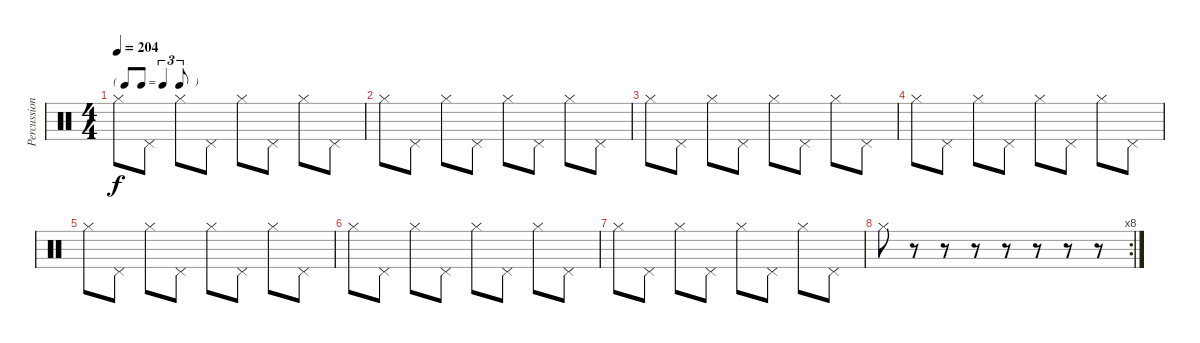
\track ("Percussion" "Percussion") {instrument percussion}
\staff {score}
\articulation defaults
\ts (4 4)
\tf triplet8th
\tempo 204
\clef neutral
\ks c "Hi-Hat (closed)".8{dy f} "Pedal Hi-Hat (hit)".8 "Hi-Hat (closed)".8 "Pedal Hi-Hat (hit)".8 "Hi-Hat (closed)".8 "Pedal Hi-Hat (hit)".8 "Hi-Hat (closed)".8 "Pedal Hi-Hat (hit)".8
|
"Hi-Hat (closed)".8 "Pedal Hi-Hat (hit)".8 "Hi-Hat (closed)".8 "Pedal Hi-Hat (hit)".8 "Hi-Hat (closed)".8 "Pedal Hi-Hat (hit)".8 "Hi-Hat (closed)".8 "Pedal Hi-Hat (hit)".8 |
"Hi-Hat (closed)".8 "Pedal Hi-Hat (hit)".8 "Hi-Hat (closed)".8 "Pedal Hi-Hat (hit)".8 "Hi-Hat (closed)".8 "Pedal Hi-Hat (hit)".8 "Hi-Hat (closed)".8 "Pedal Hi-Hat (hit)".8 |
"Hi-Hat (closed)".8 "Pedal Hi-Hat (hit)".8 "Hi-Hat (closed)".8 "Pedal Hi-Hat (hit)".8 "Hi-Hat (closed)".8 "Pedal Hi-Hat (hit)".8 "Hi-Hat (closed)".8 "Pedal Hi-Hat (hit)".8 |
"Hi-Hat (closed)".8 "Pedal Hi-Hat (hit)".8 "Hi-Hat (closed)".8 "Pedal Hi-Hat (hit)".8 "Hi-Hat (closed)".8 "Pedal Hi-Hat (hit)".8 "Hi-Hat (closed)".8 "Pedal Hi-Hat (hit)".8 |
"Hi-Hat (closed)".8 "Pedal Hi-Hat (hit)".8 "Hi-Hat (closed)".8 "Pedal Hi-Hat (hit)".8 "Hi-Hat (closed)".8 "Pedal Hi-Hat (hit)".8 "Hi-Hat (closed)".8 "Pedal Hi-Hat (hit)".8 |
"Hi-Hat (closed)".8 "Pedal Hi-Hat (hit)".8 "Hi-Hat (closed)".8 "Pedal Hi-Hat (hit)".8 "Hi-Hat (closed)".8 "Pedal Hi-Hat (hit)".8 "Hi-Hat (closed)".8 "Pedal Hi-Hat (hit)".8 |
\rc 8 "Hi-Hat (closed)".8
r.8 r.8 r.8 r.8 r.8 r.8 r.8
